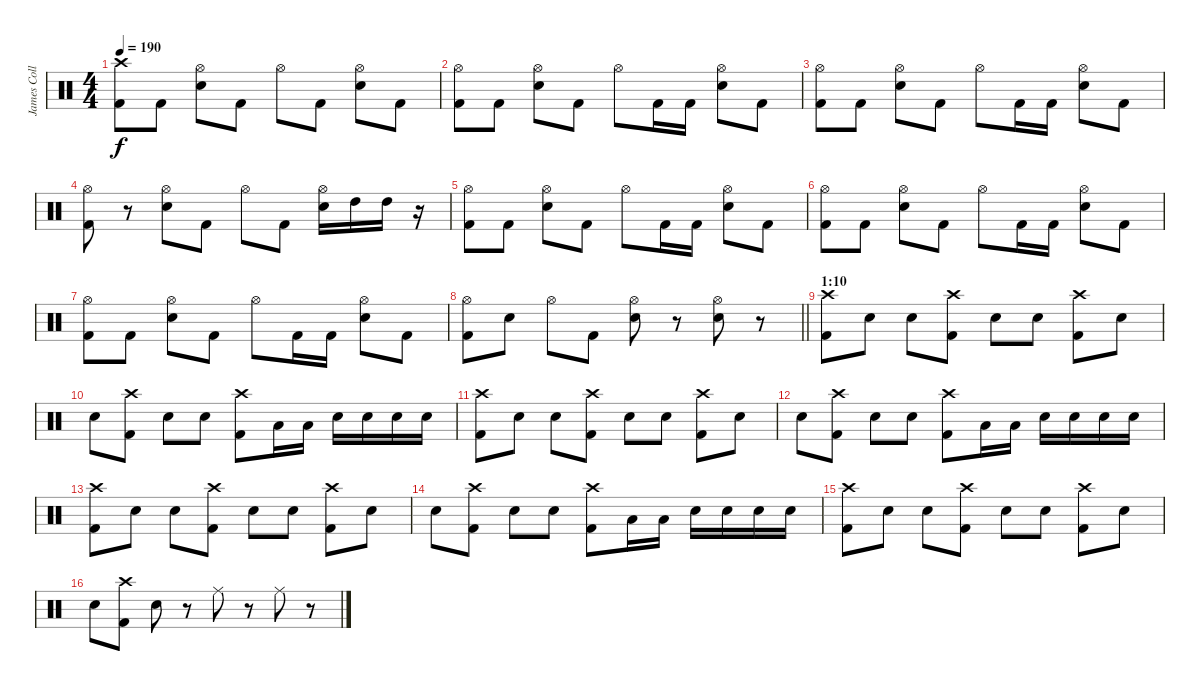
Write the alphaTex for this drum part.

\track ("James Collins" "James Coll") {instrument percussion}
\staff {score}
\articulation defaults
\ts (4 4)
\tempo 190
\clef neutral
\ks c
("Crash high (hit)" "Kick (hit) 2").8{dy f} "Kick (hit) 2".8 ("Hi-Hat (open)" "Electric Snare (hit)").8 "Kick (hit) 2".8 "Hi-Hat (open)".8 "Kick (hit) 2".8 ("Hi-Hat (open)" "Electric Snare (hit)").8 "Kick (hit) 2".8 |
("Hi-Hat (open)" "Kick (hit) 2").8 "Kick (hit) 2".8 ("Hi-Hat (open)" "Electric Snare (hit)").8 "Kick (hit) 2".8 "Hi-Hat (open)".8 "Kick (hit) 2".16 "Kick (hit) 2".16 ("Hi-Hat (open)" "Electric Snare (hit)").8 "Kick (hit) 2".8 |
("Hi-Hat (open)" "Kick (hit) 2").8 "Kick (hit) 2".8 ("Hi-Hat (open)" "Electric Snare (hit)").8 "Kick (hit) 2".8 "Hi-Hat (open)".8 "Kick (hit) 2".16 "Kick (hit) 2".16 ("Hi-Hat (open)" "Electric Snare (hit)").8 "Kick (hit) 2".8 |
("Hi-Hat (open)" "Kick (hit) 2").8 r.8 ("Hi-Hat (open)" "Electric Snare (hit)").8 "Kick (hit) 2".8 "Hi-Hat (open)".8 "Kick (hit) 2".8 ("Hi-Hat (open)" "Electric Snare (hit)").16 "High Tom (hit)".16 "High Tom (hit)".16 r.16 |
("Hi-Hat (open)" "Kick (hit) 2").8 "Kick (hit) 2".8 ("Hi-Hat (open)" "Electric Snare (hit)").8 "Kick (hit) 2".8 "Hi-Hat (open)".8 "Kick (hit) 2".16 "Kick (hit) 2".16 ("Hi-Hat (open)" "Electric Snare (hit)").8 "Kick (hit) 2".8 |
("Hi-Hat (open)" "Kick (hit) 2").8 "Kick (hit) 2".8 ("Hi-Hat (open)" "Electric Snare (hit)").8 "Kick (hit) 2".8 "Hi-Hat (open)".8 "Kick (hit) 2".16 "Kick (hit) 2".16 ("Hi-Hat (open)" "Electric Snare (hit)").8 "Kick (hit) 2".8 |
("Hi-Hat (open)" "Kick (hit) 2").8 "Kick (hit) 2".8 ("Hi-Hat (open)" "Electric Snare (hit)").8 "Kick (hit) 2".8 "Hi-Hat (open)".8 "Kick (hit) 2".16 "Kick (hit) 2".16 ("Hi-Hat (open)" "Electric Snare (hit)").8 "Kick (hit) 2".8 |
\barLineRight lightlight
("Hi-Hat (open)" "Kick (hit) 2").8 "Electric Snare (hit)".8 "Hi-Hat (open)".8 "Kick (hit) 2".8 ("Hi-Hat (open)" "Electric Snare (hit)").8 r.8 ("Hi-Hat (open)" "Electric Snare (hit)").8 r.8 |
\section ("" "1:10")
("Crash high (hit)" "Kick (hit) 2").8 "Electric Snare (hit)".8 "Electric Snare (hit)".8 ("Crash high (hit)" "Kick (hit) 2").8 "Electric Snare (hit)".8 "Electric Snare (hit)".8 ("Crash high (hit)" "Kick (hit) 2").8 "Electric Snare (hit)".8 |
"Electric Snare (hit)".8 ("Crash high (hit)" "Kick (hit) 2").8 "Electric Snare (hit)".8 "Electric Snare (hit)".8 ("Crash high (hit)" "Kick (hit) 2").8 "Low Tom (hit)".16 "Low Tom (hit)".16 "Electric Snare (hit)".16 "Electric Snare (hit)".16 "Electric Snare (hit)".16 "Electric Snare (hit)".16 |
("Crash high (hit)" "Kick (hit) 2").8 "Electric Snare (hit)".8 "Electric Snare (hit)".8 ("Crash high (hit)" "Kick (hit) 2").8 "Electric Snare (hit)".8 "Electric Snare (hit)".8 ("Crash high (hit)" "Kick (hit) 2").8 "Electric Snare (hit)".8 |
"Electric Snare (hit)".8 ("Crash high (hit)" "Kick (hit) 2").8 "Electric Snare (hit)".8 "Electric Snare (hit)".8 ("Crash high (hit)" "Kick (hit) 2").8 "Low Tom (hit)".16 "Low Tom (hit)".16 "Electric Snare (hit)".16 "Electric Snare (hit)".16 "Electric Snare (hit)".16 "Electric Snare (hit)".16 |
("Crash high (hit)" "Kick (hit) 2").8 "Electric Snare (hit)".8 "Electric Snare (hit)".8 ("Crash high (hit)" "Kick (hit) 2").8 "Electric Snare (hit)".8 "Electric Snare (hit)".8 ("Crash high (hit)" "Kick (hit) 2").8 "Electric Snare (hit)".8 |
"Electric Snare (hit)".8 ("Crash high (hit)" "Kick (hit) 2").8 "Electric Snare (hit)".8 "Electric Snare (hit)".8 ("Crash high (hit)" "Kick (hit) 2").8 "Low Tom (hit)".16 "Low Tom (hit)".16 "Electric Snare (hit)".16 "Electric Snare (hit)".16 "Electric Snare (hit)".16 "Electric Snare (hit)".16 |
("Crash high (hit)" "Kick (hit) 2").8 "Electric Snare (hit)".8 "Electric Snare (hit)".8 ("Crash high (hit)" "Kick (hit) 2").8 "Electric Snare (hit)".8 "Electric Snare (hit)".8 ("Crash high (hit)" "Kick (hit) 2").8 "Electric Snare (hit)".8 |
"Electric Snare (hit)".8 ("Crash high (hit)" "Kick (hit) 2").8 "Electric Snare (hit)".8 r.8 "Ride (middle)".8 r.8 "Ride (middle)".8 r.8
